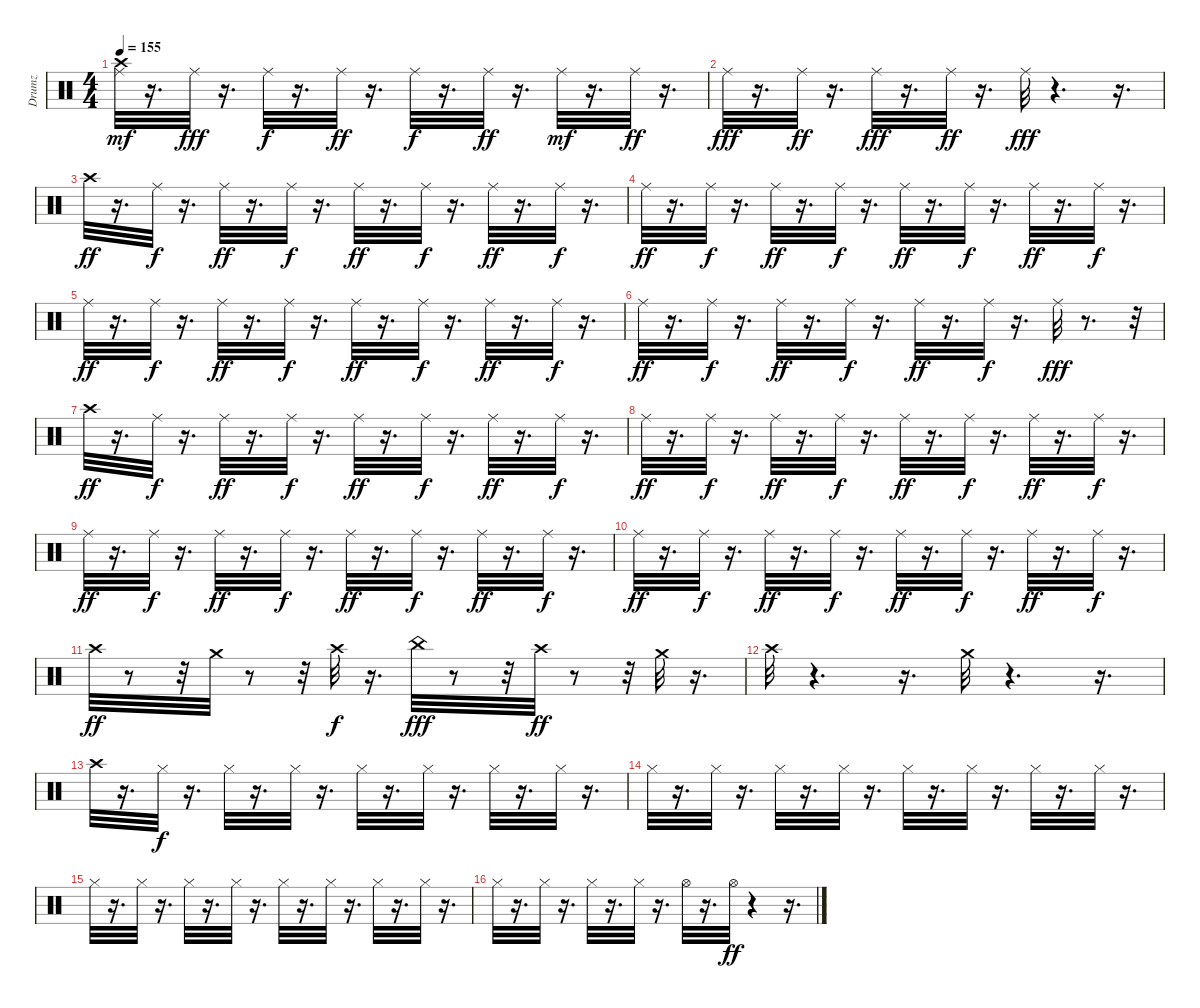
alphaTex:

\track ("Drumz" "Drumz") {instrument percussion}
\staff {score}
\articulation defaults
\ts (4 4)
\tempo 155
\clef neutral
\ks c
("Ride (middle)" "Crash high (hit)").32{dy mf} r.16{d} "Ride (middle)".32{dy fff} r.16{d} "Ride (middle)".32{dy f} r.16{d} "Ride (middle)".32{dy ff} r.16{d} "Ride (middle)".32{dy f} r.16{d} "Ride (middle)".32{dy ff} r.16{d} "Ride (middle)".32{dy mf} r.16{d} "Ride (middle)".32{dy ff} r.16{d} |
"Ride (middle)".32{dy fff} r.16{d} "Ride (middle)".32{dy ff} r.16{d} "Ride (middle)".32{dy fff} r.16{d} "Ride (middle)".32{dy ff} r.16{d} "Ride (middle)".32{dy fff} r.4{d} r.16{d} |
"Crash high (hit)".32{dy ff} r.16{d} "Ride (middle)".32{dy f} r.16{d} "Ride (middle)".32{dy ff} r.16{d} "Ride (middle)".32{dy f} r.16{d} "Ride (middle)".32{dy ff} r.16{d} "Ride (middle)".32{dy f} r.16{d} "Ride (middle)".32{dy ff} r.16{d} "Ride (middle)".32{dy f} r.16{d} |
"Ride (middle)".32{dy ff} r.16{d} "Ride (middle)".32{dy f} r.16{d} "Ride (middle)".32{dy ff} r.16{d} "Ride (middle)".32{dy f} r.16{d} "Ride (middle)".32{dy ff} r.16{d} "Ride (middle)".32{dy f} r.16{d} "Ride (middle)".32{dy ff} r.16{d} "Ride (middle)".32{dy f} r.16{d} |
"Ride (middle)".32{dy ff} r.16{d} "Ride (middle)".32{dy f} r.16{d} "Ride (middle)".32{dy ff} r.16{d} "Ride (middle)".32{dy f} r.16{d} "Ride (middle)".32{dy ff} r.16{d} "Ride (middle)".32{dy f} r.16{d} "Ride (middle)".32{dy ff} r.16{d} "Ride (middle)".32{dy f} r.16{d} |
"Ride (middle)".32{dy ff} r.16{d} "Ride (middle)".32{dy f} r.16{d} "Ride (middle)".32{dy ff} r.16{d} "Ride (middle)".32{dy f} r.16{d} "Ride (middle)".32{dy ff} r.16{d} "Ride (middle)".32{dy f} r.16{d} "Ride (middle)".32{dy fff} r.8{d} r.32 |
"Crash high (hit)".32{dy ff} r.16{d} "Ride (middle)".32{dy f} r.16{d} "Ride (middle)".32{dy ff} r.16{d} "Ride (middle)".32{dy f} r.16{d} "Ride (middle)".32{dy ff} r.16{d} "Ride (middle)".32{dy f} r.16{d} "Ride (middle)".32{dy ff} r.16{d} "Ride (middle)".32{dy f} r.16{d} |
"Ride (middle)".32{dy ff} r.16{d} "Ride (middle)".32{dy f} r.16{d} "Ride (middle)".32{dy ff} r.16{d} "Ride (middle)".32{dy f} r.16{d} "Ride (middle)".32{dy ff} r.16{d} "Ride (middle)".32{dy f} r.16{d} "Ride (middle)".32{dy ff} r.16{d} "Ride (middle)".32{dy f} r.16{d} |
"Ride (middle)".32{dy ff} r.16{d} "Ride (middle)".32{dy f} r.16{d} "Ride (middle)".32{dy ff} r.16{d} "Ride (middle)".32{dy f} r.16{d} "Ride (middle)".32{dy ff} r.16{d} "Ride (middle)".32{dy f} r.16{d} "Ride (middle)".32{dy ff} r.16{d} "Ride (middle)".32{dy f} r.16{d} |
"Ride (middle)".32{dy ff} r.16{d} "Ride (middle)".32{dy f} r.16{d} "Ride (middle)".32{dy ff} r.16{d} "Ride (middle)".32{dy f} r.16{d} "Ride (middle)".32{dy ff} r.16{d} "Ride (middle)".32{dy f} r.16{d} "Ride (middle)".32{dy ff} r.16{d} "Ride (middle)".32{dy f} r.16{d} |
"Crash high (hit)".32{dy ff} r.8 r.32 "Crash medium (hit)".32 r.8 r.32 "Crash high (hit)".32{dy f} r.16{d} "China (hit)".32{dy fff} r.8 r.32 "Crash high (hit)".32{dy ff} r.8 r.32 "Crash medium (hit)".32 r.16{d} |
"Crash high (hit)".32 r.4{d} r.16{d} "Crash medium (hit)".32 r.4{d} r.16{d} |
"Crash high (hit)".32 r.16{d} "Hi-Hat (closed)".32{dy f} r.16{d} "Hi-Hat (closed)".32 r.16{d} "Hi-Hat (closed)".32 r.16{d} "Hi-Hat (closed)".32 r.16{d} "Hi-Hat (closed)".32 r.16{d} "Hi-Hat (closed)".32 r.16{d} "Hi-Hat (closed)".32 r.16{d} |
"Hi-Hat (closed)".32 r.16{d} "Hi-Hat (closed)".32 r.16{d} "Hi-Hat (closed)".32 r.16{d} "Hi-Hat (closed)".32 r.16{d} "Hi-Hat (closed)".32 r.16{d} "Hi-Hat (closed)".32 r.16{d} "Hi-Hat (closed)".32 r.16{d} "Hi-Hat (closed)".32 r.16{d} |
"Hi-Hat (closed)".32 r.16{d} "Hi-Hat (closed)".32 r.16{d} "Hi-Hat (closed)".32 r.16{d} "Hi-Hat (closed)".32 r.16{d} "Hi-Hat (closed)".32 r.16{d} "Hi-Hat (closed)".32 r.16{d} "Hi-Hat (closed)".32 r.16{d} "Hi-Hat (closed)".32 r.16{d} |
"Hi-Hat (closed)".32 r.16{d} "Hi-Hat (closed)".32 r.16{d} "Hi-Hat (closed)".32 r.16{d} "Hi-Hat (closed)".32 r.16{d} "Hi-Hat (open)".32 r.16{d} "Hi-Hat (open)".32{dy ff} r.4 r.16{d}
